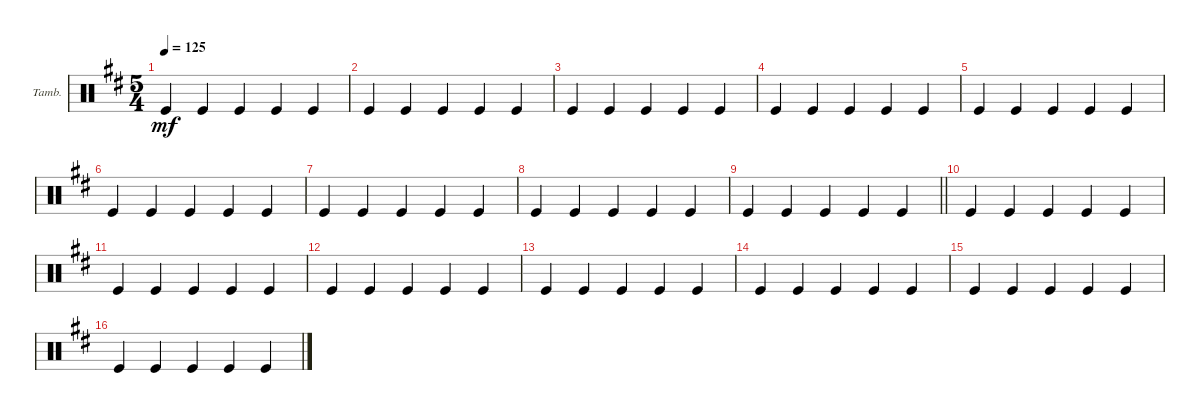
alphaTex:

\defaultSystemsLayout 4
\bracketExtendMode groupsimilarinstruments
\firstSystemTrackNameOrientation horizontal
\otherSystemsTrackNameOrientation horizontal
\track ("ЧИК-ЧИК (ШЕЙКЕР)" "Tamb.") {instrument percussion}
\staff {score}
\articulation defaults
\ts (5 4)
\tempo 125
\clef neutral
\ks bminor "Kick (hit)".4{dy mf} "Kick (hit)".4 "Kick (hit)".4 "Kick (hit)".4 "Kick (hit)".4
|
"Kick (hit)".4 "Kick (hit)".4 "Kick (hit)".4 "Kick (hit)".4 "Kick (hit)".4 |
"Kick (hit)".4 "Kick (hit)".4 "Kick (hit)".4 "Kick (hit)".4 "Kick (hit)".4 |
"Kick (hit)".4 "Kick (hit)".4 "Kick (hit)".4 "Kick (hit)".4 "Kick (hit)".4 |
"Kick (hit)".4 "Kick (hit)".4 "Kick (hit)".4 "Kick (hit)".4 "Kick (hit)".4 |
"Kick (hit)".4 "Kick (hit)".4 "Kick (hit)".4 "Kick (hit)".4 "Kick (hit)".4 |
"Kick (hit)".4 "Kick (hit)".4 "Kick (hit)".4 "Kick (hit)".4 "Kick (hit)".4 |
"Kick (hit)".4 "Kick (hit)".4 "Kick (hit)".4 "Kick (hit)".4 "Kick (hit)".4 |
\barLineRight lightlight "Kick (hit)".4 "Kick (hit)".4 "Kick (hit)".4 "Kick (hit)".4 "Kick (hit)".4
|
"Kick (hit)".4 "Kick (hit)".4 "Kick (hit)".4 "Kick (hit)".4 "Kick (hit)".4 |
"Kick (hit)".4 "Kick (hit)".4 "Kick (hit)".4 "Kick (hit)".4 "Kick (hit)".4 |
"Kick (hit)".4 "Kick (hit)".4 "Kick (hit)".4 "Kick (hit)".4 "Kick (hit)".4 |
"Kick (hit)".4 "Kick (hit)".4 "Kick (hit)".4 "Kick (hit)".4 "Kick (hit)".4 |
"Kick (hit)".4 "Kick (hit)".4 "Kick (hit)".4 "Kick (hit)".4 "Kick (hit)".4 |
"Kick (hit)".4 "Kick (hit)".4 "Kick (hit)".4 "Kick (hit)".4 "Kick (hit)".4 |
"Kick (hit)".4 "Kick (hit)".4 "Kick (hit)".4 "Kick (hit)".4 "Kick (hit)".4
